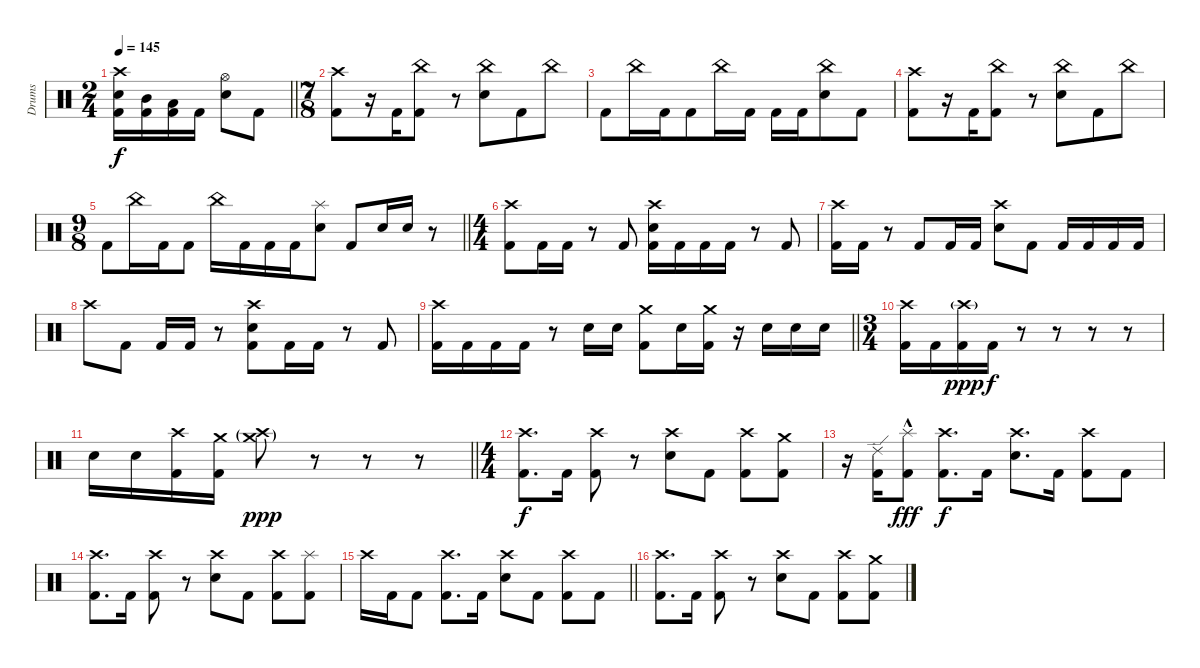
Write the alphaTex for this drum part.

\track ("Drums" "Drums") {instrument percussion}
\staff {score}
\articulation defaults
\ts (2 4)
\tempo 145
\clef neutral
\barLineRight lightlight
\ks c
("Crash high (hit)" "Electric Snare (hit)" "Kick (hit) 2").16{dy f} ("Mid Tom (hit)" "Kick (hit) 2").16 ("Low Tom (hit)" "Kick (hit) 2").16 "Kick (hit) 2".16 ("Hi-Hat (open)" "Electric Snare (hit)").8 "Kick (hit) 2".8 |
\ts (7 8)
("Crash high (hit)" "Kick (hit) 2").8 r.16 "Kick (hit) 2".16 ("China (hit)" "Kick (hit) 2").8 r.8 ("China (hit)" "Electric Snare (hit)").8 "Kick (hit) 2".8 "China (hit)".8 |
"Kick (hit) 2".8 "China (hit)".16 "Kick (hit) 2".16 "Kick (hit) 2".8 "China (hit)".16 "Kick (hit) 2".16 "Kick (hit) 2".16 "Kick (hit) 2".16 ("China (hit)" "Electric Snare (hit)").8 "Kick (hit) 2".8 |
("Crash high (hit)" "Kick (hit) 2").8 r.16 "Kick (hit) 2".16 ("China (hit)" "Kick (hit) 2").8 r.8 ("China (hit)" "Electric Snare (hit)").8 "Kick (hit) 2".8 "China (hit)".8 |
\ts (9 8)
\barLineRight lightlight "Kick (hit) 2".8 "China (hit)".16 "Kick (hit) 2".16 "Kick (hit) 2".8 "China (hit)".16 "Kick (hit) 2".16 "Kick (hit) 2".16 "Kick (hit) 2".16
("Splash (hit)" "Electric Snare (hit)").8 "Kick (hit) 2".8 "Electric Snare (hit)".16 "Electric Snare (hit)".16 r.8 |
\ts (4 4)
("Crash high (hit)" "Kick (hit) 2").8 "Kick (hit) 2".16 "Kick (hit) 2".16 r.8 "Kick (hit) 2".8 ("Crash high (hit)" "Electric Snare (hit)" "Kick (hit) 2").16 "Kick (hit) 2".16 "Kick (hit) 2".16 "Kick (hit) 2".16 r.8 "Kick (hit) 2".8 |
("Crash high (hit)" "Kick (hit) 2").16 "Kick (hit) 2".16 r.8 "Kick (hit) 2".8 "Kick (hit) 2".16 "Kick (hit) 2".16 ("Crash high (hit)" "Electric Snare (hit)").8 "Kick (hit) 2".8 "Kick (hit) 2".16 "Kick (hit) 2".16 "Kick (hit) 2".16 "Kick (hit) 2".16 |
"Crash high (hit)".8 "Kick (hit) 2".8 "Kick (hit) 2".16 "Kick (hit) 2".16 r.8 ("Crash high (hit)" "Electric Snare (hit)" "Kick (hit) 2").8 "Kick (hit) 2".16 "Kick (hit) 2".16 r.8 "Kick (hit) 2".8 |
\barLineRight lightlight
("Crash high (hit)" "Kick (hit) 2").16 "Kick (hit) 2".16 "Kick (hit) 2".16 "Kick (hit) 2".16 r.8 "Electric Snare (hit)".16 "Electric Snare (hit)".16 ("Crash medium (hit)" "Kick (hit) 2").8 "Electric Snare (hit)".16 ("Crash medium (hit)" "Kick (hit) 2").16 r.16 "Electric Snare (hit)".16 "Electric Snare (hit)".16 "Electric Snare (hit)".16 |
\ts (3 4)
("Crash high (hit)" "Kick (hit) 2").16 "Kick (hit) 2".16 ("Crash high (hit)"{g} "Kick (hit) 2").16{dy ppp} "Kick (hit) 2".16{dy f} r.8 r.8 r.8 r.8 |
\barLineRight lightlight "Electric Snare (hit)".16 "Electric Snare (hit)".16
("Crash high (hit)" "Kick (hit) 2").16 ("Crash medium (hit)" "Kick (hit) 2").16 ("Crash high (hit)"{g} "Crash medium (hit)"{g}).8{dy ppp} r.8 r.8 r.8 |
\ts (4 4)
("Crash high (hit)" "Kick (hit) 2").8{d dy f} "Kick (hit) 2".16 ("Crash high (hit)" "Kick (hit) 2").8 r.8 ("Crash high (hit)" "Electric Snare (hit)").8 "Kick (hit) 2".8 ("Crash high (hit)" "Kick (hit) 2").8 ("Crash medium (hit)" "Kick (hit) 2").8 |
r.16 ("Ride (edge) 2" "Kick (hit) 2").16 ("Splash (hit)"{hac} "Kick (hit) 2").8{dy fff} ("Crash high (hit)" "Kick (hit) 2").8{d dy f} "Kick (hit) 2".16 ("Crash high (hit)" "Electric Snare (hit)").8{d} "Kick (hit) 2".16 ("Crash high (hit)" "Kick (hit) 2").8 "Kick (hit) 2".8 |
("Crash high (hit)" "Kick (hit) 2").8{d} "Kick (hit) 2".16 ("Crash high (hit)" "Kick (hit) 2").8 r.8 ("Crash high (hit)" "Electric Snare (hit)").8 "Kick (hit) 2".8 ("Crash high (hit)" "Kick (hit) 2").8 ("Splash (hit)" "Kick (hit) 2").8 |
\barLineRight lightlight "Crash high (hit)".16 "Kick (hit) 2".16 "Kick (hit) 2".8
("Crash high (hit)" "Kick (hit) 2").8{d} "Kick (hit) 2".16 ("Crash high (hit)" "Electric Snare (hit)").8 "Kick (hit) 2".8 ("Crash high (hit)" "Kick (hit) 2").8 "Kick (hit) 2".8 |
("Crash high (hit)" "Kick (hit) 2").8{d} "Kick (hit) 2".16 ("Crash high (hit)" "Kick (hit) 2").8 r.8 ("Crash high (hit)" "Electric Snare (hit)").8 "Kick (hit) 2".8 ("Crash high (hit)" "Kick (hit) 2").8 ("Crash medium (hit)" "Kick (hit) 2").8
